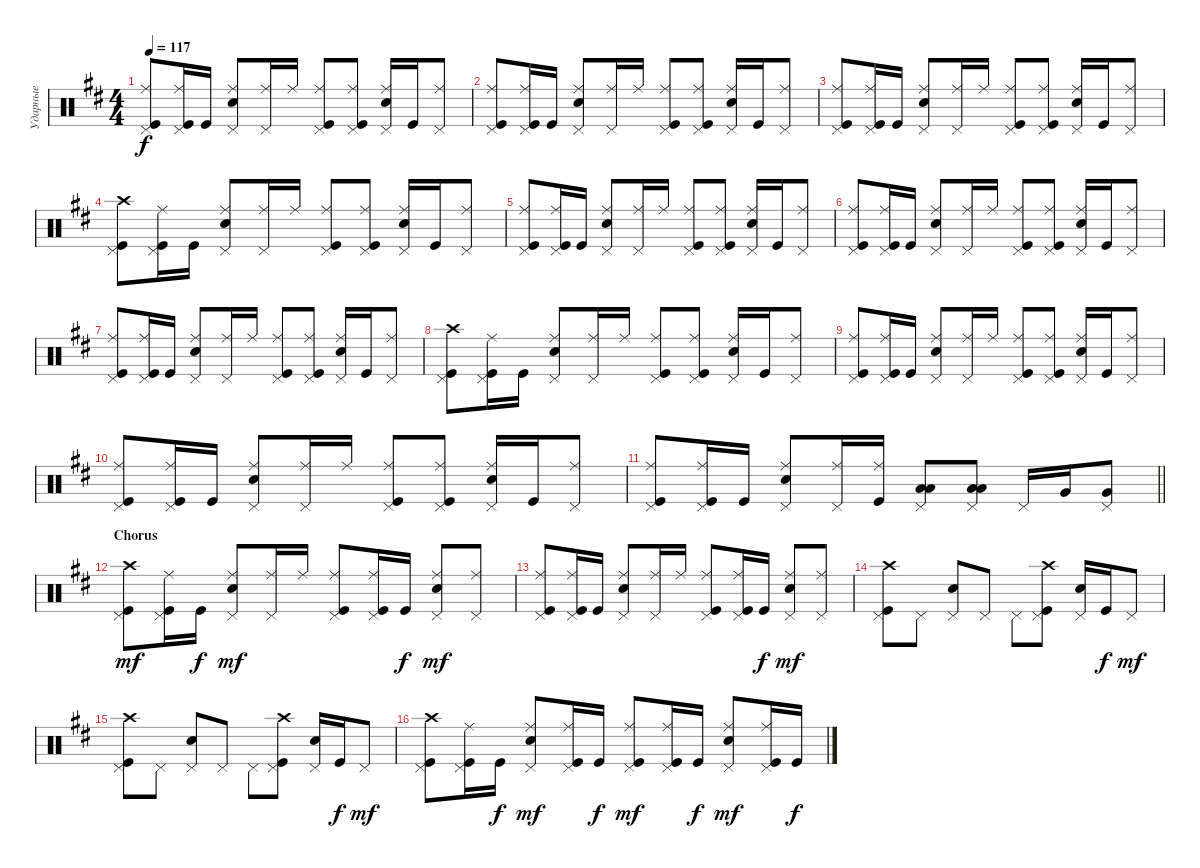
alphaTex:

\track ("Ударные" "Ударные") {instrument percussion}
\staff {score}
\articulation defaults
\ts (4 4)
\tempo 117
\clef neutral
\ks d
("Kick (hit)" "Ride (middle)" "Pedal Hi-Hat (hit)").8{dy f} ("Kick (hit)" "Ride (middle)" "Pedal Hi-Hat (hit)").16 "Kick (hit)".16 ("Snare (hit) 2" "Ride (middle)" "Pedal Hi-Hat (hit)").8 ("Ride (middle)" "Pedal Hi-Hat (hit)").16 "Ride (middle)".16 ("Kick (hit)" "Ride (middle)" "Pedal Hi-Hat (hit)").8 ("Ride (middle)" "Kick (hit)" "Pedal Hi-Hat (hit)").8 ("Snare (hit) 2" "Ride (middle)" "Pedal Hi-Hat (hit)").16 "Kick (hit)".16 ("Ride (middle)" "Pedal Hi-Hat (hit)").8 |
("Kick (hit)" "Ride (middle)" "Pedal Hi-Hat (hit)").8 ("Kick (hit)" "Ride (middle)" "Pedal Hi-Hat (hit)").16 "Kick (hit)".16 ("Snare (hit) 2" "Ride (middle)" "Pedal Hi-Hat (hit)").8 ("Ride (middle)" "Pedal Hi-Hat (hit)").16 "Ride (middle)".16 ("Kick (hit)" "Ride (middle)" "Pedal Hi-Hat (hit)").8 ("Ride (middle)" "Kick (hit)" "Pedal Hi-Hat (hit)").8 ("Snare (hit) 2" "Ride (middle)" "Pedal Hi-Hat (hit)").16 "Kick (hit)".16 ("Ride (middle)" "Pedal Hi-Hat (hit)").8 |
("Kick (hit)" "Ride (middle)" "Pedal Hi-Hat (hit)").8 ("Kick (hit)" "Ride (middle)" "Pedal Hi-Hat (hit)").16 "Kick (hit)".16 ("Snare (hit) 2" "Ride (middle)" "Pedal Hi-Hat (hit)").8 ("Ride (middle)" "Pedal Hi-Hat (hit)").16 "Ride (middle)".16 ("Kick (hit)" "Ride (middle)" "Pedal Hi-Hat (hit)").8 ("Ride (middle)" "Kick (hit)" "Pedal Hi-Hat (hit)").8 ("Snare (hit) 2" "Ride (middle)" "Pedal Hi-Hat (hit)").16 "Kick (hit)".16 ("Ride (middle)" "Pedal Hi-Hat (hit)").8 |
("Kick (hit)" "Crash high (hit)" "Pedal Hi-Hat (hit)").8 ("Kick (hit)" "Ride (middle)" "Pedal Hi-Hat (hit)").16 "Kick (hit)".16 ("Snare (hit) 2" "Ride (middle)" "Pedal Hi-Hat (hit)").8 ("Ride (middle)" "Pedal Hi-Hat (hit)").16 "Ride (middle)".16 ("Kick (hit)" "Ride (middle)" "Pedal Hi-Hat (hit)").8 ("Ride (middle)" "Kick (hit)" "Pedal Hi-Hat (hit)").8 ("Snare (hit) 2" "Ride (middle)" "Pedal Hi-Hat (hit)").16 "Kick (hit)".16 ("Ride (middle)" "Pedal Hi-Hat (hit)").8 |
("Kick (hit)" "Ride (middle)" "Pedal Hi-Hat (hit)").8 ("Kick (hit)" "Ride (middle)" "Pedal Hi-Hat (hit)").16 "Kick (hit)".16 ("Snare (hit) 2" "Ride (middle)" "Pedal Hi-Hat (hit)").8 ("Ride (middle)" "Pedal Hi-Hat (hit)").16 "Ride (middle)".16 ("Kick (hit)" "Ride (middle)" "Pedal Hi-Hat (hit)").8 ("Ride (middle)" "Kick (hit)" "Pedal Hi-Hat (hit)").8 ("Snare (hit) 2" "Ride (middle)" "Pedal Hi-Hat (hit)").16 "Kick (hit)".16 ("Ride (middle)" "Pedal Hi-Hat (hit)").8 |
("Kick (hit)" "Ride (middle)" "Pedal Hi-Hat (hit)").8 ("Kick (hit)" "Ride (middle)" "Pedal Hi-Hat (hit)").16 "Kick (hit)".16 ("Snare (hit) 2" "Ride (middle)" "Pedal Hi-Hat (hit)").8 ("Ride (middle)" "Pedal Hi-Hat (hit)").16 "Ride (middle)".16 ("Kick (hit)" "Ride (middle)" "Pedal Hi-Hat (hit)").8 ("Ride (middle)" "Kick (hit)" "Pedal Hi-Hat (hit)").8 ("Snare (hit) 2" "Ride (middle)" "Pedal Hi-Hat (hit)").16 "Kick (hit)".16 ("Ride (middle)" "Pedal Hi-Hat (hit)").8 |
("Kick (hit)" "Ride (middle)" "Pedal Hi-Hat (hit)").8 ("Kick (hit)" "Ride (middle)" "Pedal Hi-Hat (hit)").16 "Kick (hit)".16 ("Snare (hit) 2" "Ride (middle)" "Pedal Hi-Hat (hit)").8 ("Ride (middle)" "Pedal Hi-Hat (hit)").16 "Ride (middle)".16 ("Kick (hit)" "Ride (middle)" "Pedal Hi-Hat (hit)").8 ("Ride (middle)" "Kick (hit)" "Pedal Hi-Hat (hit)").8 ("Snare (hit) 2" "Ride (middle)" "Pedal Hi-Hat (hit)").16 "Kick (hit)".16 ("Ride (middle)" "Pedal Hi-Hat (hit)").8 |
("Kick (hit)" "Crash high (hit)" "Pedal Hi-Hat (hit)").8 ("Kick (hit)" "Ride (middle)" "Pedal Hi-Hat (hit)").16 "Kick (hit)".16 ("Snare (hit) 2" "Ride (middle)" "Pedal Hi-Hat (hit)").8 ("Ride (middle)" "Pedal Hi-Hat (hit)").16 "Ride (middle)".16 ("Kick (hit)" "Ride (middle)" "Pedal Hi-Hat (hit)").8 ("Ride (middle)" "Kick (hit)" "Pedal Hi-Hat (hit)").8 ("Snare (hit) 2" "Ride (middle)" "Pedal Hi-Hat (hit)").16 "Kick (hit)".16 ("Ride (middle)" "Pedal Hi-Hat (hit)").8 |
("Kick (hit)" "Ride (middle)" "Pedal Hi-Hat (hit)").8 ("Kick (hit)" "Ride (middle)" "Pedal Hi-Hat (hit)").16 "Kick (hit)".16 ("Snare (hit) 2" "Ride (middle)" "Pedal Hi-Hat (hit)").8 ("Ride (middle)" "Pedal Hi-Hat (hit)").16 "Ride (middle)".16 ("Kick (hit)" "Ride (middle)" "Pedal Hi-Hat (hit)").8 ("Ride (middle)" "Kick (hit)" "Pedal Hi-Hat (hit)").8 ("Snare (hit) 2" "Ride (middle)" "Pedal Hi-Hat (hit)").16 "Kick (hit)".16 ("Ride (middle)" "Pedal Hi-Hat (hit)").8 |
("Kick (hit)" "Ride (middle)" "Pedal Hi-Hat (hit)").8 ("Kick (hit)" "Ride (middle)" "Pedal Hi-Hat (hit)").16 "Kick (hit)".16 ("Snare (hit) 2" "Ride (middle)" "Pedal Hi-Hat (hit)").8 ("Ride (middle)" "Pedal Hi-Hat (hit)").16 "Ride (middle)".16 ("Kick (hit)" "Ride (middle)" "Pedal Hi-Hat (hit)").8 ("Ride (middle)" "Kick (hit)" "Pedal Hi-Hat (hit)").8 ("Snare (hit) 2" "Ride (middle)" "Pedal Hi-Hat (hit)").16 "Kick (hit)".16 ("Ride (middle)" "Pedal Hi-Hat (hit)").8 |
\barLineRight lightlight
("Kick (hit)" "Ride (middle)" "Pedal Hi-Hat (hit)").8 ("Kick (hit)" "Ride (middle)" "Pedal Hi-Hat (hit)").16 "Kick (hit)".16 ("Snare (hit) 2" "Ride (middle)" "Pedal Hi-Hat (hit)").8 ("Ride (middle)" "Pedal Hi-Hat (hit)").16 ("Ride (middle)" "Kick (hit)").16 ("Low Tom (hit)" "Low Tom (hit)" "Pedal Hi-Hat (hit)").8{bd 120} ("Low Tom (hit)" "Low Tom (hit)" "Pedal Hi-Hat (hit)").8{bd 120} "Pedal Hi-Hat (hit)".16 "Very Low Tom (hit)".16 ("Pedal Hi-Hat (hit)" "Very Low Tom (hit)").8 |
\section ("" "Chorus")
("Kick (hit)" "Crash high (hit)" "Pedal Hi-Hat (hit)").8{dy mf} ("Kick (hit)" "Ride (middle)" "Pedal Hi-Hat (hit)").16 "Kick (hit)".16{dy f} ("Snare (hit) 2" "Ride (middle)" "Pedal Hi-Hat (hit)").8{dy mf} ("Ride (middle)" "Pedal Hi-Hat (hit)").16 "Ride (middle)".16 ("Kick (hit)" "Ride (middle)" "Pedal Hi-Hat (hit)").8 ("Ride (middle)" "Kick (hit)" "Pedal Hi-Hat (hit)").16 "Kick (hit)".16{dy f} ("Snare (hit) 2" "Ride (middle)" "Pedal Hi-Hat (hit)").8{dy mf} ("Ride (middle)" "Pedal Hi-Hat (hit)").8 |
("Kick (hit)" "Ride (middle)" "Pedal Hi-Hat (hit)").8 ("Kick (hit)" "Ride (middle)" "Pedal Hi-Hat (hit)").16 "Kick (hit)".16 ("Snare (hit) 2" "Ride (middle)" "Pedal Hi-Hat (hit)").8 ("Ride (middle)" "Pedal Hi-Hat (hit)").16 "Ride (middle)".16 ("Kick (hit)" "Ride (middle)" "Pedal Hi-Hat (hit)").8 ("Ride (middle)" "Kick (hit)" "Pedal Hi-Hat (hit)").16 "Kick (hit)".16{dy f} ("Snare (hit) 2" "Ride (middle)" "Pedal Hi-Hat (hit)").8{dy mf} ("Ride (middle)" "Pedal Hi-Hat (hit)").8 |
("Kick (hit)" "Crash high (hit)" "Pedal Hi-Hat (hit)").8 "Pedal Hi-Hat (hit)".8 ("Snare (hit) 2" "Pedal Hi-Hat (hit)").8 "Pedal Hi-Hat (hit)".8 "Pedal Hi-Hat (hit)".8 ("Kick (hit)" "Crash high (hit)" "Pedal Hi-Hat (hit)").8 ("Snare (hit) 2" "Pedal Hi-Hat (hit)").16 "Kick (hit)".16{dy f} "Pedal Hi-Hat (hit)".8{dy mf} |
("Kick (hit)" "Crash high (hit)" "Pedal Hi-Hat (hit)").8 "Pedal Hi-Hat (hit)".8 ("Snare (hit) 2" "Pedal Hi-Hat (hit)").8 "Pedal Hi-Hat (hit)".8 "Pedal Hi-Hat (hit)".8 ("Kick (hit)" "Crash high (hit)" "Pedal Hi-Hat (hit)").8 ("Snare (hit) 2" "Pedal Hi-Hat (hit)").16 "Kick (hit)".16{dy f} "Pedal Hi-Hat (hit)".8{dy mf} |
("Kick (hit)" "Crash high (hit)" "Pedal Hi-Hat (hit)").8 ("Kick (hit)" "Ride (middle)" "Pedal Hi-Hat (hit)").16 "Kick (hit)".16{dy f} ("Snare (hit) 2" "Ride (middle)" "Pedal Hi-Hat (hit)").8{dy mf} ("Ride (middle)" "Kick (hit)" "Pedal Hi-Hat (hit)").16 "Kick (hit)".16{dy f} ("Kick (hit)" "Ride (middle)" "Pedal Hi-Hat (hit)").8{dy mf} ("Ride (middle)" "Kick (hit)" "Pedal Hi-Hat (hit)").16 "Kick (hit)".16{dy f} ("Snare (hit) 2" "Ride (middle)" "Pedal Hi-Hat (hit)").8{dy mf} ("Ride (middle)" "Kick (hit)" "Pedal Hi-Hat (hit)").16 "Kick (hit)".16{dy f}
